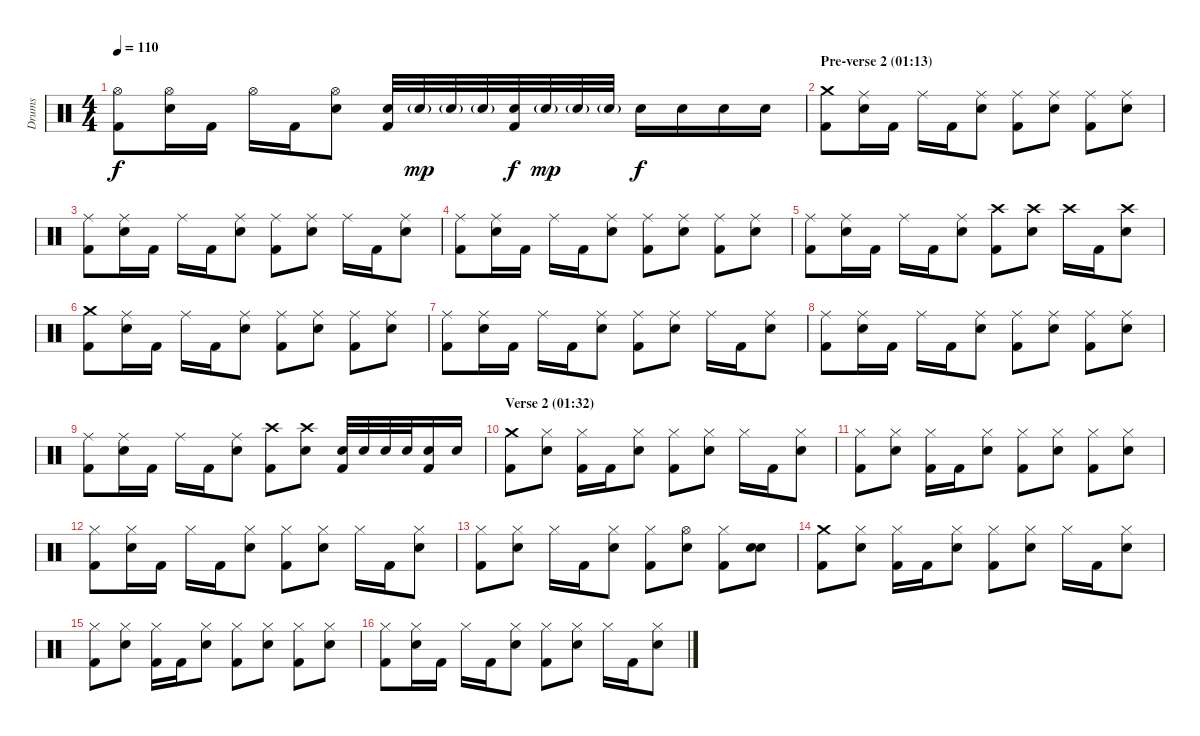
\track ("Drums" "Drums") {instrument percussion}
\staff {score}
\articulation defaults
\ts (4 4)
\tempo 110
\clef neutral
\ks c
("Hi-Hat (open)" "Kick (hit) 2").8{dy f} ("Hi-Hat (open)" "Electric Snare (hit)").16 "Kick (hit) 2".16 "Hi-Hat (open)".16 "Kick (hit) 2".16 ("Hi-Hat (open)" "Electric Snare (hit)").8 ("Electric Snare (hit)" "Kick (hit) 2").32 "Electric Snare (hit)"{g}.32{dy mp} "Electric Snare (hit)"{g}.32 "Electric Snare (hit)"{g}.32 ("Electric Snare (hit)" "Kick (hit) 2").32{dy f} "Electric Snare (hit)"{g}.32{dy mp} "Electric Snare (hit)"{g}.32 "Electric Snare (hit)"{g}.32 "Electric Snare (hit)".16{dy f} "Electric Snare (hit)".16 "Electric Snare (hit)".16 "Electric Snare (hit)".16 |
\section ("" "Pre-verse 2 (01:13)")
("Crash medium (hit)" "Kick (hit) 2").8 ("Ride (middle)" "Electric Snare (hit)").16 "Kick (hit) 2".16 "Ride (middle)".16 "Kick (hit) 2".16 ("Ride (middle)" "Electric Snare (hit)").8 ("Ride (middle)" "Kick (hit) 2").8 ("Ride (middle)" "Electric Snare (hit)").8 ("Ride (middle)" "Kick (hit) 2").8 ("Ride (middle)" "Electric Snare (hit)").8 |
("Ride (middle)" "Kick (hit) 2").8 ("Ride (middle)" "Electric Snare (hit)").16 "Kick (hit) 2".16 "Ride (middle)".16 "Kick (hit) 2".16 ("Ride (middle)" "Electric Snare (hit)").8 ("Ride (middle)" "Kick (hit) 2").8 ("Ride (middle)" "Electric Snare (hit)").8 "Ride (middle)".16 "Kick (hit) 2".16 ("Ride (middle)" "Electric Snare (hit)").8 |
("Ride (middle)" "Kick (hit) 2").8 ("Ride (middle)" "Electric Snare (hit)").16 "Kick (hit) 2".16 "Ride (middle)".16 "Kick (hit) 2".16 ("Ride (middle)" "Electric Snare (hit)").8 ("Ride (middle)" "Kick (hit) 2").8 ("Ride (middle)" "Electric Snare (hit)").8 ("Ride (middle)" "Kick (hit) 2").8 ("Ride (middle)" "Electric Snare (hit)").8 |
("Ride (middle)" "Kick (hit) 2").8 ("Ride (middle)" "Electric Snare (hit)").16 "Kick (hit) 2".16 "Ride (middle)".16 "Kick (hit) 2".16 ("Ride (middle)" "Electric Snare (hit)").8 ("Crash high (hit)" "Kick (hit) 2").8 ("Crash high (hit)" "Electric Snare (hit)").8 "Crash high (hit)".16 "Kick (hit) 2".16 ("Crash high (hit)" "Electric Snare (hit)").8 |
("Crash medium (hit)" "Kick (hit) 2").8 ("Ride (middle)" "Electric Snare (hit)").16 "Kick (hit) 2".16 "Ride (middle)".16 "Kick (hit) 2".16 ("Ride (middle)" "Electric Snare (hit)").8 ("Ride (middle)" "Kick (hit) 2").8 ("Ride (middle)" "Electric Snare (hit)").8 ("Ride (middle)" "Kick (hit) 2").8 ("Ride (middle)" "Electric Snare (hit)").8 |
("Ride (middle)" "Kick (hit) 2").8 ("Ride (middle)" "Electric Snare (hit)").16 "Kick (hit) 2".16 "Ride (middle)".16 "Kick (hit) 2".16 ("Ride (middle)" "Electric Snare (hit)").8 ("Ride (middle)" "Kick (hit) 2").8 ("Ride (middle)" "Electric Snare (hit)").8 "Ride (middle)".16 "Kick (hit) 2".16 ("Ride (middle)" "Electric Snare (hit)").8 |
("Ride (middle)" "Kick (hit) 2").8 ("Ride (middle)" "Electric Snare (hit)").16 "Kick (hit) 2".16 "Ride (middle)".16 "Kick (hit) 2".16 ("Ride (middle)" "Electric Snare (hit)").8 ("Ride (middle)" "Kick (hit) 2").8 ("Ride (middle)" "Electric Snare (hit)").8 ("Ride (middle)" "Kick (hit) 2").8 ("Ride (middle)" "Electric Snare (hit)").8 |
("Ride (middle)" "Kick (hit) 2").8 ("Ride (middle)" "Electric Snare (hit)").16 "Kick (hit) 2".16 "Ride (middle)".16 "Kick (hit) 2".16 ("Ride (middle)" "Electric Snare (hit)").8 ("Crash high (hit)" "Kick (hit) 2").8 ("Crash high (hit)" "Electric Snare (hit)").8 ("Electric Snare (hit)" "Kick (hit) 2").32 "Electric Snare (hit)".32 "Electric Snare (hit)".32 "Electric Snare (hit)".32 ("Electric Snare (hit)" "Kick (hit) 2").16 "Electric Snare (hit)".16 |
\section ("" "Verse 2 (01:32)")
("Crash medium (hit)" "Kick (hit) 2").8 ("Hi-Hat (closed)" "Electric Snare (hit)").8 ("Hi-Hat (closed)" "Kick (hit) 2").16 "Kick (hit) 2".16 ("Hi-Hat (closed)" "Electric Snare (hit)").8 ("Hi-Hat (closed)" "Kick (hit) 2").8 ("Hi-Hat (closed)" "Electric Snare (hit)").8 "Hi-Hat (closed)".16 "Kick (hit) 2".16 ("Hi-Hat (closed)" "Electric Snare (hit)").8 |
("Hi-Hat (closed)" "Kick (hit) 2").8 ("Hi-Hat (closed)" "Electric Snare (hit)").8 ("Hi-Hat (closed)" "Kick (hit) 2").16 "Kick (hit) 2".16 ("Hi-Hat (closed)" "Electric Snare (hit)").8 ("Hi-Hat (closed)" "Kick (hit) 2").8 ("Hi-Hat (closed)" "Electric Snare (hit)").8 ("Hi-Hat (closed)" "Kick (hit) 2").8 ("Hi-Hat (closed)" "Electric Snare (hit)").8 |
("Hi-Hat (closed)" "Kick (hit) 2").8 ("Hi-Hat (closed)" "Electric Snare (hit)").16 "Kick (hit) 2".16 "Hi-Hat (closed)".16 "Kick (hit) 2".16 ("Hi-Hat (closed)" "Electric Snare (hit)").8 ("Hi-Hat (closed)" "Kick (hit) 2").8 ("Hi-Hat (closed)" "Electric Snare (hit)").8 "Hi-Hat (closed)".16 "Kick (hit) 2".16 ("Hi-Hat (closed)" "Electric Snare (hit)").8 |
("Hi-Hat (closed)" "Kick (hit) 2").8 ("Hi-Hat (closed)" "Electric Snare (hit)").8 "Hi-Hat (closed)".16 "Kick (hit) 2".16 ("Hi-Hat (closed)" "Electric Snare (hit)").8 ("Hi-Hat (closed)" "Kick (hit) 2").8 ("Hi-Hat (open)" "Electric Snare (hit)").8 ("Hi-Hat (closed)" "Kick (hit) 2").8 ("Electric Snare (hit)" "Electric Snare (hit)").8{bu 120} |
("Crash medium (hit)" "Kick (hit) 2").8 ("Hi-Hat (closed)" "Electric Snare (hit)").8 ("Hi-Hat (closed)" "Kick (hit) 2").16 "Kick (hit) 2".16 ("Hi-Hat (closed)" "Electric Snare (hit)").8 ("Hi-Hat (closed)" "Kick (hit) 2").8 ("Hi-Hat (closed)" "Electric Snare (hit)").8 "Hi-Hat (closed)".16 "Kick (hit) 2".16 ("Hi-Hat (closed)" "Electric Snare (hit)").8 |
("Hi-Hat (closed)" "Kick (hit) 2").8 ("Hi-Hat (closed)" "Electric Snare (hit)").8 ("Hi-Hat (closed)" "Kick (hit) 2").16 "Kick (hit) 2".16 ("Hi-Hat (closed)" "Electric Snare (hit)").8 ("Hi-Hat (closed)" "Kick (hit) 2").8 ("Hi-Hat (closed)" "Electric Snare (hit)").8 ("Hi-Hat (closed)" "Kick (hit) 2").8 ("Hi-Hat (closed)" "Electric Snare (hit)").8 |
("Hi-Hat (closed)" "Kick (hit) 2").8 ("Hi-Hat (closed)" "Electric Snare (hit)").16 "Kick (hit) 2".16 "Hi-Hat (closed)".16 "Kick (hit) 2".16 ("Hi-Hat (closed)" "Electric Snare (hit)").8 ("Hi-Hat (closed)" "Kick (hit) 2").8 ("Hi-Hat (closed)" "Electric Snare (hit)").8 "Hi-Hat (closed)".16 "Kick (hit) 2".16 ("Hi-Hat (closed)" "Electric Snare (hit)").8
